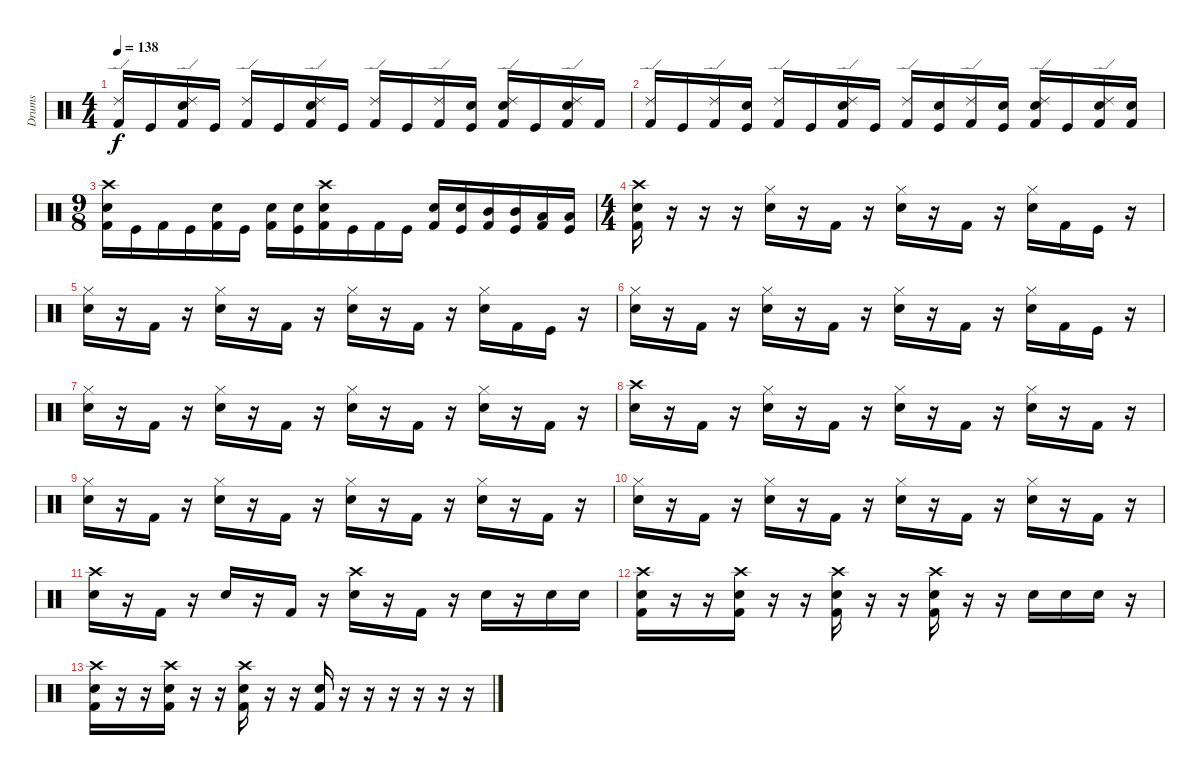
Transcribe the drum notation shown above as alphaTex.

\track ("Drums" "Drums") {instrument percussion}
\staff {score}
\articulation defaults
\ts (4 4)
\tempo 138
\clef neutral
\ks c
("Ride (edge) 2" "Kick (hit) 2").16{dy f} "Kick (hit)".16 ("Ride (edge) 2" "Snare (hit) 2" "Kick (hit) 2").16 "Kick (hit)".16 ("Ride (edge) 2" "Kick (hit) 2").16 "Kick (hit)".16 ("Ride (edge) 2" "Snare (hit) 2" "Kick (hit) 2").16 "Kick (hit)".16 ("Ride (edge) 2" "Kick (hit) 2").16 "Kick (hit)".16 ("Ride (edge) 2" "Kick (hit) 2").16 ("Snare (hit) 2" "Kick (hit)").16 ("Ride (edge) 2" "Snare (hit) 2" "Kick (hit) 2").16 "Kick (hit)".16 ("Ride (edge) 2" "Snare (hit) 2" "Kick (hit) 2").16 "Kick (hit) 2".16 |
("Ride (edge) 2" "Kick (hit) 2").16 "Kick (hit)".16 ("Ride (edge) 2" "Kick (hit) 2").16 ("Snare (hit) 2" "Kick (hit)").16 ("Ride (edge) 2" "Kick (hit) 2").16 "Kick (hit)".16 ("Ride (edge) 2" "Snare (hit) 2" "Kick (hit) 2").16 "Kick (hit)".16 ("Ride (edge) 2" "Kick (hit) 2").16 ("Snare (hit) 2" "Kick (hit)").16 ("Ride (edge) 2" "Kick (hit) 2").16 ("Snare (hit) 2" "Kick (hit)").16 ("Ride (edge) 2" "Snare (hit) 2" "Kick (hit) 2").16 "Kick (hit)".16 ("Ride (edge) 2" "Snare (hit) 2" "Kick (hit) 2").16 ("Snare (hit) 2" "Kick (hit) 2").16 |
\ts (9 8)
("Crash high (hit)" "Snare (hit) 2" "Kick (hit) 2").16 "Kick (hit)".16 "Kick (hit) 2".16 "Kick (hit)".16 ("Snare (hit) 2" "Kick (hit) 2").16 "Kick (hit)".16 ("Snare (hit) 2" "Kick (hit) 2").16 ("Snare (hit) 2" "Kick (hit)").16 ("Crash high (hit)" "Snare (hit) 2" "Kick (hit) 2").16 "Kick (hit)".16 "Kick (hit) 2".16 "Kick (hit)".16 ("Snare (hit) 2" "Kick (hit) 2").16 ("Snare (hit) 2" "Kick (hit)").16 ("Mid Tom (hit)" "Kick (hit) 2").16 ("Mid Tom (hit)" "Kick (hit)").16 ("Low Tom (hit)" "Kick (hit) 2").16 ("Low Tom (hit)" "Kick (hit)").16 |
\ts (4 4)
\section ("" "")
("Crash high (hit)" "Snare (hit) 2" "Kick (hit) 2").16 r.16 r.16 r.16 ("Hi-Hat (closed)" "Snare (hit) 2").16 r.16 "Kick (hit) 2".16 r.16 ("Hi-Hat (closed)" "Snare (hit) 2").16 r.16 "Kick (hit) 2".16 r.16 ("Hi-Hat (closed)" "Snare (hit) 2").16 "Kick (hit) 2".16 "Kick (hit)".16 r.16 |
("Hi-Hat (closed)" "Snare (hit) 2").16 r.16 "Kick (hit) 2".16 r.16 ("Hi-Hat (closed)" "Snare (hit) 2").16 r.16 "Kick (hit) 2".16 r.16 ("Hi-Hat (closed)" "Snare (hit) 2").16 r.16 "Kick (hit) 2".16 r.16 ("Hi-Hat (closed)" "Snare (hit) 2").16 "Kick (hit) 2".16 "Kick (hit)".16 r.16 |
("Hi-Hat (closed)" "Snare (hit) 2").16 r.16 "Kick (hit) 2".16 r.16 ("Hi-Hat (closed)" "Snare (hit) 2").16 r.16 "Kick (hit) 2".16 r.16 ("Hi-Hat (closed)" "Snare (hit) 2").16 r.16 "Kick (hit) 2".16 r.16 ("Hi-Hat (closed)" "Snare (hit) 2").16 "Kick (hit) 2".16 "Kick (hit)".16 r.16 |
("Hi-Hat (closed)" "Snare (hit) 2").16 r.16 "Kick (hit) 2".16 r.16 ("Hi-Hat (closed)" "Snare (hit) 2").16 r.16 "Kick (hit) 2".16 r.16 ("Hi-Hat (closed)" "Snare (hit) 2").16 r.16 "Kick (hit) 2".16 r.16 ("Hi-Hat (closed)" "Snare (hit) 2").16 r.16 "Kick (hit) 2".16 r.16 |
("Crash high (hit)" "Snare (hit) 2").16 r.16 "Kick (hit) 2".16 r.16 ("Hi-Hat (closed)" "Snare (hit) 2").16 r.16 "Kick (hit) 2".16 r.16 ("Hi-Hat (closed)" "Snare (hit) 2").16 r.16 "Kick (hit) 2".16 r.16 ("Hi-Hat (closed)" "Snare (hit) 2").16 r.16 "Kick (hit) 2".16 r.16 |
("Hi-Hat (closed)" "Snare (hit) 2").16 r.16 "Kick (hit) 2".16 r.16 ("Hi-Hat (closed)" "Snare (hit) 2").16 r.16 "Kick (hit) 2".16 r.16 ("Hi-Hat (closed)" "Snare (hit) 2").16 r.16 "Kick (hit) 2".16 r.16 ("Hi-Hat (closed)" "Snare (hit) 2").16 r.16 "Kick (hit) 2".16 r.16 |
("Hi-Hat (closed)" "Snare (hit) 2").16 r.16 "Kick (hit) 2".16 r.16 ("Hi-Hat (closed)" "Snare (hit) 2").16 r.16 "Kick (hit) 2".16 r.16 ("Hi-Hat (closed)" "Snare (hit) 2").16 r.16 "Kick (hit) 2".16 r.16 ("Hi-Hat (closed)" "Snare (hit) 2").16 r.16 "Kick (hit) 2".16 r.16 |
("Crash high (hit)" "Snare (hit) 2").16 r.16 "Kick (hit) 2".16 r.16 "Snare (hit) 2".16 r.16 "Kick (hit) 2".16 r.16 ("Crash high (hit)" "Snare (hit) 2").16 r.16 "Kick (hit) 2".16 r.16 "Snare (hit) 2".16 r.16 "Snare (hit) 2".16 "Snare (hit) 2".16 |
("Crash high (hit)" "Snare (hit) 2" "Kick (hit) 2").16 r.16 r.16 ("Crash high (hit)" "Snare (hit) 2" "Kick (hit) 2").16 r.16 r.16 ("Crash high (hit)" "Snare (hit) 2" "Kick (hit) 2").16 r.16 r.16 ("Crash high (hit)" "Snare (hit) 2" "Kick (hit) 2").16 r.16 r.16 "Snare (hit) 2".16 "Snare (hit) 2".16 "Snare (hit) 2".16 r.16 |
("Crash high (hit)" "Snare (hit) 2" "Kick (hit) 2").16 r.16 r.16 ("Crash high (hit)" "Snare (hit) 2" "Kick (hit) 2").16 r.16 r.16 ("Crash high (hit)" "Snare (hit) 2" "Kick (hit) 2").16 r.16 r.16 ("Snare (hit) 2" "Kick (hit) 2").16 r.16 r.16 r.16 r.16 r.16 r.16
